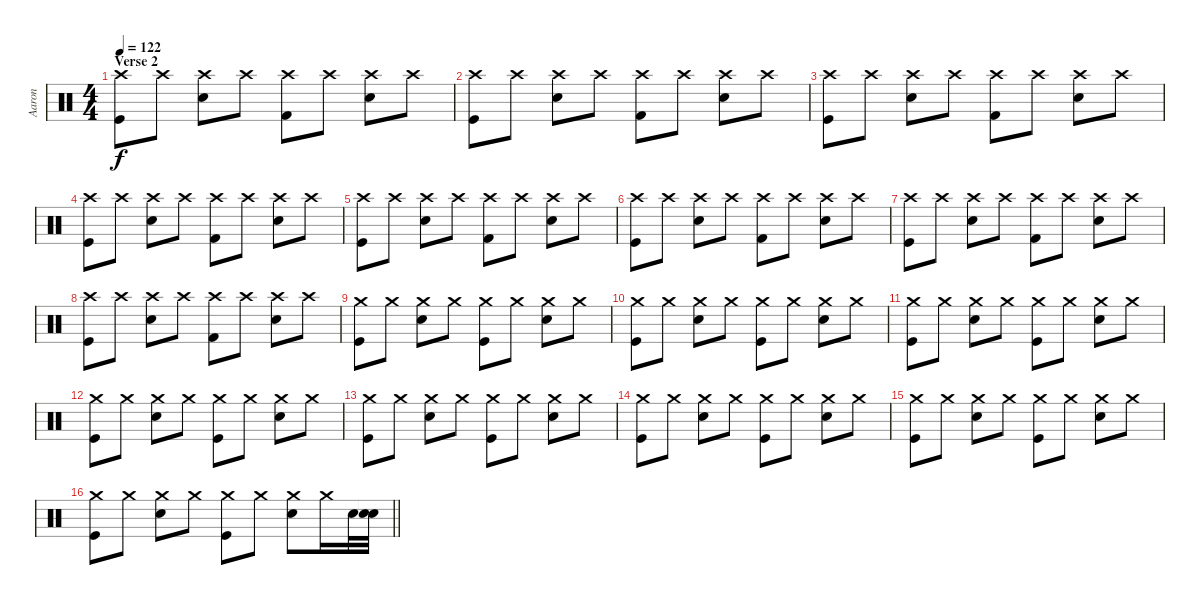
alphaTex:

\track ("Aaron" "Aaron") {instrument percussion}
\staff {score}
\articulation defaults
\ts (4 4)
\section ("" "Verse 2")
\tempo 122
\clef neutral
\ks c
("Crash high (hit)" "Kick (hit)").8{dy f} "Crash high (hit)".8 ("Crash high (hit)" "Snare (hit) 2").8 "Crash high (hit)".8 ("Crash high (hit)" "Kick (hit) 2").8 "Crash high (hit)".8 ("Crash high (hit)" "Snare (hit) 2").8 "Crash high (hit)".8 |
("Crash high (hit)" "Kick (hit)").8 "Crash high (hit)".8 ("Crash high (hit)" "Snare (hit) 2").8 "Crash high (hit)".8 ("Crash high (hit)" "Kick (hit) 2").8 "Crash high (hit)".8 ("Crash high (hit)" "Snare (hit) 2").8 "Crash high (hit)".8 |
("Crash high (hit)" "Kick (hit)").8 "Crash high (hit)".8 ("Crash high (hit)" "Snare (hit) 2").8 "Crash high (hit)".8 ("Crash high (hit)" "Kick (hit) 2").8 "Crash high (hit)".8 ("Crash high (hit)" "Snare (hit) 2").8 "Crash high (hit)".8 |
("Crash high (hit)" "Kick (hit)").8 "Crash high (hit)".8 ("Crash high (hit)" "Snare (hit) 2").8 "Crash high (hit)".8 ("Crash high (hit)" "Kick (hit) 2").8 "Crash high (hit)".8 ("Crash high (hit)" "Snare (hit) 2").8 "Crash high (hit)".8 |
("Crash high (hit)" "Kick (hit)").8 "Crash high (hit)".8 ("Crash high (hit)" "Snare (hit) 2").8 "Crash high (hit)".8 ("Crash high (hit)" "Kick (hit) 2").8 "Crash high (hit)".8 ("Crash high (hit)" "Snare (hit) 2").8 "Crash high (hit)".8 |
("Crash high (hit)" "Kick (hit)").8 "Crash high (hit)".8 ("Crash high (hit)" "Snare (hit) 2").8 "Crash high (hit)".8 ("Crash high (hit)" "Kick (hit) 2").8 "Crash high (hit)".8 ("Crash high (hit)" "Snare (hit) 2").8 "Crash high (hit)".8 |
("Crash high (hit)" "Kick (hit)").8 "Crash high (hit)".8 ("Crash high (hit)" "Snare (hit) 2").8 "Crash high (hit)".8 ("Crash high (hit)" "Kick (hit) 2").8 "Crash high (hit)".8 ("Crash high (hit)" "Snare (hit) 2").8 "Crash high (hit)".8 |
("Crash high (hit)" "Kick (hit)").8 "Crash high (hit)".8 ("Crash high (hit)" "Snare (hit) 2").8 "Crash high (hit)".8 ("Crash high (hit)" "Kick (hit) 2").8 "Crash high (hit)".8 ("Crash high (hit)" "Snare (hit) 2").8 "Crash high (hit)".8 |
("Crash medium (hit)" "Kick (hit)").8 "Crash medium (hit)".8 ("Crash medium (hit)" "Snare (hit) 2").8 "Crash medium (hit)".8 ("Crash medium (hit)" "Kick (hit)").8 "Crash medium (hit)".8 ("Crash medium (hit)" "Snare (hit) 2").8 "Crash medium (hit)".8 |
("Crash medium (hit)" "Kick (hit)").8 "Crash medium (hit)".8 ("Crash medium (hit)" "Snare (hit) 2").8 "Crash medium (hit)".8 ("Crash medium (hit)" "Kick (hit)").8 "Crash medium (hit)".8 ("Crash medium (hit)" "Snare (hit) 2").8 "Crash medium (hit)".8 |
("Crash medium (hit)" "Kick (hit)").8 "Crash medium (hit)".8 ("Crash medium (hit)" "Snare (hit) 2").8 "Crash medium (hit)".8 ("Crash medium (hit)" "Kick (hit)").8 "Crash medium (hit)".8 ("Crash medium (hit)" "Snare (hit) 2").8 "Crash medium (hit)".8 |
("Crash medium (hit)" "Kick (hit)").8 "Crash medium (hit)".8 ("Crash medium (hit)" "Snare (hit) 2").8 "Crash medium (hit)".8 ("Crash medium (hit)" "Kick (hit)").8 "Crash medium (hit)".8 ("Crash medium (hit)" "Snare (hit) 2").8 "Crash medium (hit)".8 |
("Crash medium (hit)" "Kick (hit)").8 "Crash medium (hit)".8 ("Crash medium (hit)" "Snare (hit) 2").8 "Crash medium (hit)".8 ("Crash medium (hit)" "Kick (hit)").8 "Crash medium (hit)".8 ("Crash medium (hit)" "Snare (hit) 2").8 "Crash medium (hit)".8 |
("Crash medium (hit)" "Kick (hit)").8 "Crash medium (hit)".8 ("Crash medium (hit)" "Snare (hit) 2").8 "Crash medium (hit)".8 ("Crash medium (hit)" "Kick (hit)").8 "Crash medium (hit)".8 ("Crash medium (hit)" "Snare (hit) 2").8 "Crash medium (hit)".8 |
("Crash medium (hit)" "Kick (hit)").8 "Crash medium (hit)".8 ("Crash medium (hit)" "Snare (hit) 2").8 "Crash medium (hit)".8 ("Crash medium (hit)" "Kick (hit)").8 "Crash medium (hit)".8 ("Crash medium (hit)" "Snare (hit) 2").8 "Crash medium (hit)".8 |
\barLineRight lightlight
("Crash medium (hit)" "Kick (hit)").8 "Crash medium (hit)".8 ("Crash medium (hit)" "Snare (hit) 2").8 "Crash medium (hit)".8 ("Crash medium (hit)" "Kick (hit)").8 "Crash medium (hit)".8 ("Crash medium (hit)" "Snare (hit) 2").8 "Crash medium (hit)".16 "Snare (hit) 2".32 ("Snare (hit)"{t} "Snare (hit) 2").32
